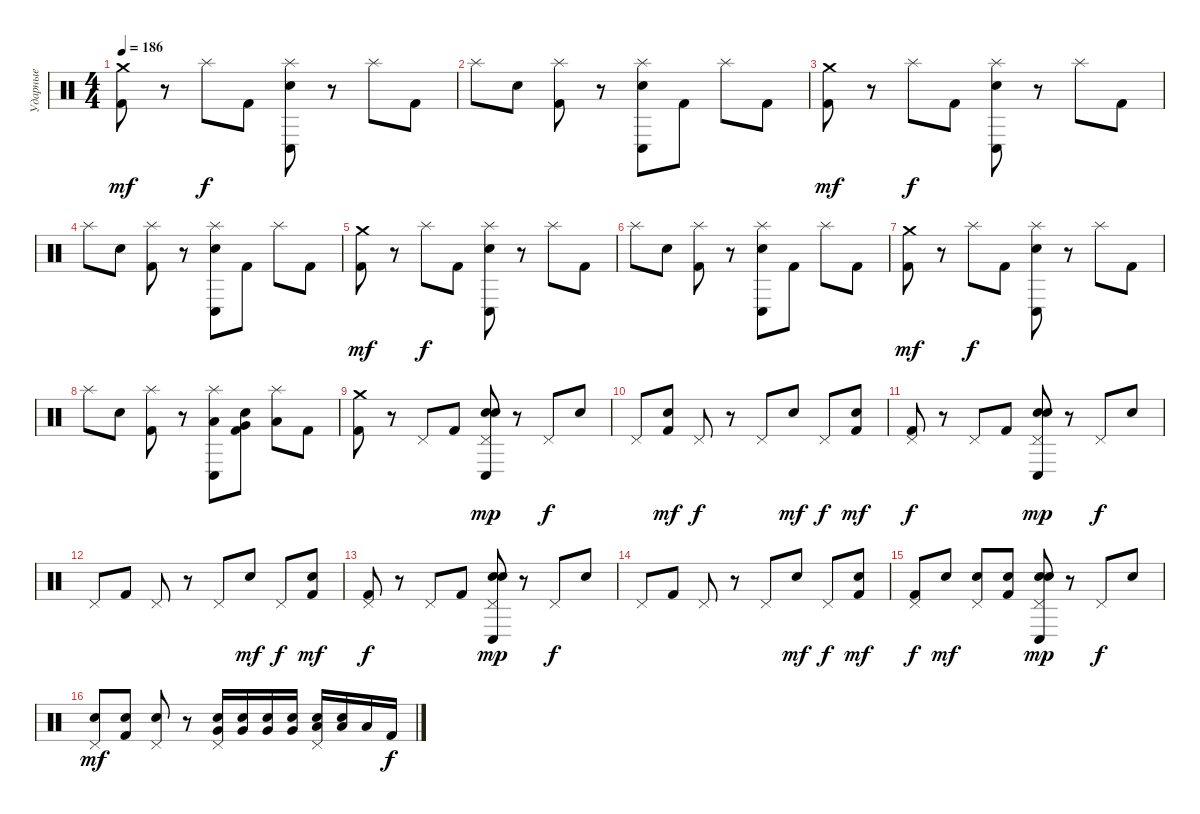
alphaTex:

\track ("Ударные" "Ударные") {instrument percussion}
\staff {score}
\articulation defaults
\ts (4 4)
\tempo 186
\clef neutral
\ks c
("Crash medium (hit)" "Kick (hit) 2").8{dy mf} r.8 "Splash (hit)".8{dy f} "Kick (hit) 2".8 ("Splash (hit)" "Conga low (hit)" "Electric Snare (hit)").8 r.8 "Splash (hit)".8 "Kick (hit) 2".8 |
"Splash (hit)".8 "Electric Snare (hit)".8 ("Splash (hit)" "Kick (hit) 2").8 r.8 ("Splash (hit)" "Conga low (hit)" "Electric Snare (hit)").8 "Kick (hit) 2".8 "Splash (hit)".8 "Kick (hit) 2".8 |
("Crash medium (hit)" "Kick (hit) 2").8{dy mf} r.8 "Splash (hit)".8{dy f} "Kick (hit) 2".8 ("Splash (hit)" "Conga low (hit)" "Electric Snare (hit)").8 r.8 "Splash (hit)".8 "Kick (hit) 2".8 |
"Splash (hit)".8 "Electric Snare (hit)".8 ("Splash (hit)" "Kick (hit) 2").8 r.8 ("Splash (hit)" "Conga low (hit)" "Electric Snare (hit)").8 "Kick (hit) 2".8 "Splash (hit)".8 "Kick (hit) 2".8 |
("Crash medium (hit)" "Kick (hit) 2").8{dy mf} r.8 "Splash (hit)".8{dy f} "Kick (hit) 2".8 ("Splash (hit)" "Conga low (hit)" "Electric Snare (hit)").8 r.8 "Splash (hit)".8 "Kick (hit) 2".8 |
"Splash (hit)".8 "Electric Snare (hit)".8 ("Splash (hit)" "Kick (hit) 2").8 r.8 ("Splash (hit)" "Conga low (hit)" "Electric Snare (hit)").8 "Kick (hit) 2".8 "Splash (hit)".8 "Kick (hit) 2".8 |
("Crash medium (hit)" "Kick (hit) 2").8{dy mf} r.8 "Splash (hit)".8{dy f} "Kick (hit) 2".8 ("Splash (hit)" "Conga low (hit)" "Electric Snare (hit)").8 r.8 "Splash (hit)".8 "Kick (hit) 2".8 |
"Splash (hit)".8 "Electric Snare (hit)".8 ("Splash (hit)" "Kick (hit) 2").8 r.8 ("Splash (hit)" "Conga low (hit)" "Low Tom (hit)").8 ("Electric Snare (hit)" "Very Low Tom (hit)" "Kick (hit) 2").8 ("Splash (hit)" "Low Floor Tom (hit)").8 "Kick (hit) 2".8 |
("Crash medium (hit)" "Kick (hit) 2").8 r.8 "Pedal Hi-Hat (hit)".8 "Kick (hit) 2".8 ("Pedal Hi-Hat (hit)" "Conga low (hit)" "Electric Snare (hit)" "Snare (hit) 2").8{dy mp} r.8 "Pedal Hi-Hat (hit)".8{dy f} "Electric Snare (hit)".8 |
"Pedal Hi-Hat (hit)".8 ("Electric Snare (hit)" "Kick (hit) 2").8{dy mf} "Pedal Hi-Hat (hit)".8{dy f} r.8 "Pedal Hi-Hat (hit)".8 "Electric Snare (hit)".8{dy mf} "Pedal Hi-Hat (hit)".8{dy f} ("Electric Snare (hit)" "Kick (hit) 2").8{dy mf} |
("Pedal Hi-Hat (hit)" "Kick (hit) 2").8{dy f} r.8 "Pedal Hi-Hat (hit)".8 "Kick (hit) 2".8 ("Pedal Hi-Hat (hit)" "Conga low (hit)" "Electric Snare (hit)" "Snare (hit) 2").8{dy mp} r.8 "Pedal Hi-Hat (hit)".8{dy f} "Electric Snare (hit)".8 |
"Pedal Hi-Hat (hit)".8 "Kick (hit) 2".8 "Pedal Hi-Hat (hit)".8 r.8 "Pedal Hi-Hat (hit)".8 "Electric Snare (hit)".8{dy mf} "Pedal Hi-Hat (hit)".8{dy f} ("Electric Snare (hit)" "Kick (hit) 2").8{dy mf} |
("Pedal Hi-Hat (hit)" "Kick (hit) 2").8{dy f} r.8 "Pedal Hi-Hat (hit)".8 "Kick (hit) 2".8 ("Pedal Hi-Hat (hit)" "Conga low (hit)" "Electric Snare (hit)" "Snare (hit) 2").8{dy mp} r.8 "Pedal Hi-Hat (hit)".8{dy f} "Electric Snare (hit)".8 |
"Pedal Hi-Hat (hit)".8 "Kick (hit) 2".8 "Pedal Hi-Hat (hit)".8 r.8 "Pedal Hi-Hat (hit)".8 "Electric Snare (hit)".8{dy mf} "Pedal Hi-Hat (hit)".8{dy f} ("Electric Snare (hit)" "Kick (hit) 2").8{dy mf} |
("Pedal Hi-Hat (hit)" "Kick (hit) 2").8{dy f} "Electric Snare (hit)".8{dy mf} ("Pedal Hi-Hat (hit)" "Electric Snare (hit)").8 ("Electric Snare (hit)" "Kick (hit) 2").8 ("Pedal Hi-Hat (hit)" "Conga low (hit)" "Electric Snare (hit)" "Snare (hit) 2").8{dy mp} r.8 "Pedal Hi-Hat (hit)".8{dy f} "Electric Snare (hit)".8 |
("Pedal Hi-Hat (hit)" "Electric Snare (hit)").8{dy mf} ("Electric Snare (hit)" "Kick (hit) 2").8 ("Pedal Hi-Hat (hit)" "Electric Snare (hit)").8 r.8 ("Pedal Hi-Hat (hit)" "Electric Snare (hit)" "Very Low Tom (hit)").16 ("Electric Snare (hit)" "Very Low Tom (hit)").16 ("Electric Snare (hit)" "Very Low Tom (hit)").16 ("Electric Snare (hit)" "Very Low Tom (hit)").16 ("Pedal Hi-Hat (hit)" "Electric Snare (hit)" "Low Floor Tom (hit)").16 ("Electric Snare (hit)" "Low Floor Tom (hit)").16 "Low Floor Tom (hit)".16 "Kick (hit) 2".16{dy f}
